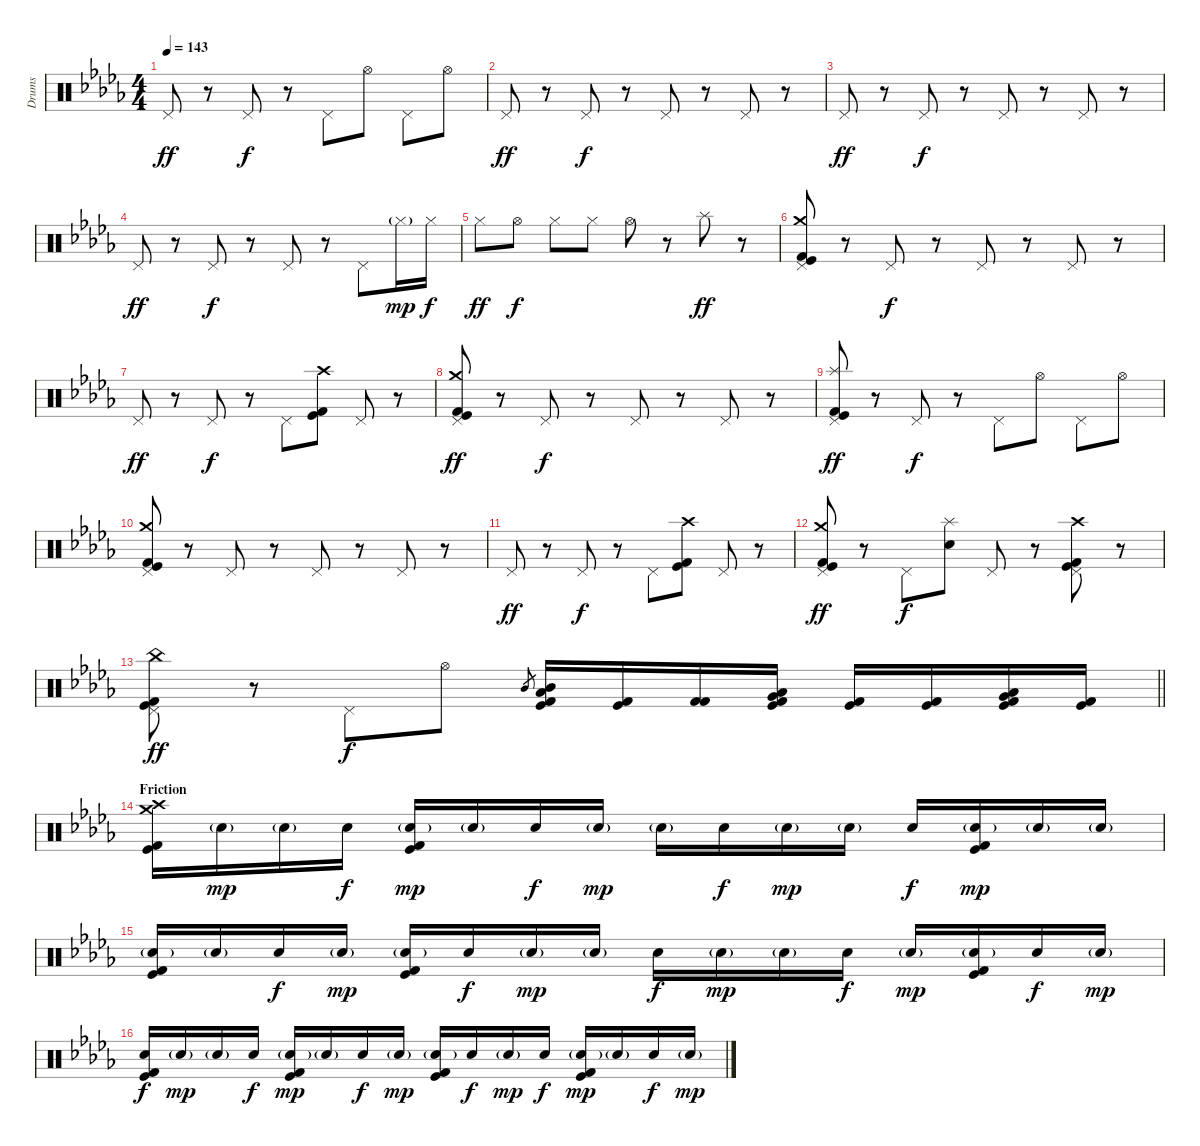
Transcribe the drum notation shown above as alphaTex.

\track ("Drums" "Drums") {instrument percussion}
\staff {score}
\articulation defaults
\ts (4 4)
\tempo 143
\clef neutral
\ks db "Pedal Hi-Hat (hit)".8{dy ff}
r.8 "Pedal Hi-Hat (hit)".8{dy f} r.8 "Pedal Hi-Hat (hit)".8 "Hi-Hat (open)".8 "Pedal Hi-Hat (hit)".8 "Hi-Hat (open)".8 |
"Pedal Hi-Hat (hit)".8{dy ff} r.8 "Pedal Hi-Hat (hit)".8{dy f} r.8 "Pedal Hi-Hat (hit)".8 r.8 "Pedal Hi-Hat (hit)".8 r.8 |
"Pedal Hi-Hat (hit)".8{dy ff} r.8 "Pedal Hi-Hat (hit)".8{dy f} r.8 "Pedal Hi-Hat (hit)".8 r.8 "Pedal Hi-Hat (hit)".8 r.8 |
"Pedal Hi-Hat (hit)".8{dy ff} r.8 "Pedal Hi-Hat (hit)".8{dy f} r.8 "Pedal Hi-Hat (hit)".8 r.8 "Pedal Hi-Hat (hit)".8 "Hi-Hat (closed)"{g}.16{dy mp} "Hi-Hat (closed)".16{dy f} |
"Hi-Hat (closed)".8{dy ff} "Hi-Hat (open)".8{dy f} "Hi-Hat (closed)".8 "Hi-Hat (closed)".8 "Hi-Hat (open)".8 r.8 "Splash (hit)".8{dy ff} r.8 |
("Crash medium (hit)" "Pedal Hi-Hat (hit)" "Kick (hit)" "Kick (hit) 2").8 r.8 "Pedal Hi-Hat (hit)".8{dy f} r.8 "Pedal Hi-Hat (hit)".8 r.8 "Pedal Hi-Hat (hit)".8 r.8 |
"Pedal Hi-Hat (hit)".8{dy ff} r.8 "Pedal Hi-Hat (hit)".8{dy f} r.8 "Pedal Hi-Hat (hit)".8 ("Crash high (hit)" "Kick (hit)" "Kick (hit) 2").8 "Pedal Hi-Hat (hit)".8 r.8 |
("Crash medium (hit)" "Pedal Hi-Hat (hit)" "Kick (hit)" "Kick (hit) 2").8{dy ff} r.8 "Pedal Hi-Hat (hit)".8{dy f} r.8 "Pedal Hi-Hat (hit)".8 r.8 "Pedal Hi-Hat (hit)".8 r.8 |
("Splash (hit)" "Pedal Hi-Hat (hit)" "Kick (hit)" "Kick (hit) 2").8{dy ff} r.8 "Pedal Hi-Hat (hit)".8{dy f} r.8 "Pedal Hi-Hat (hit)".8 "Hi-Hat (open)".8 "Pedal Hi-Hat (hit)".8 "Hi-Hat (open)".8 |
("Crash medium (hit)" "Pedal Hi-Hat (hit)" "Kick (hit)" "Kick (hit) 2").8 r.8 "Pedal Hi-Hat (hit)".8 r.8 "Pedal Hi-Hat (hit)".8 r.8 "Pedal Hi-Hat (hit)".8 r.8 |
"Pedal Hi-Hat (hit)".8{dy ff} r.8 "Pedal Hi-Hat (hit)".8{dy f} r.8 "Pedal Hi-Hat (hit)".8 ("Crash high (hit)" "Kick (hit)" "Kick (hit) 2").8 "Pedal Hi-Hat (hit)".8 r.8 |
("Crash medium (hit)" "Pedal Hi-Hat (hit)" "Kick (hit)" "Kick (hit) 2").8{dy ff} r.8 "Pedal Hi-Hat (hit)".8{dy f} ("Splash (hit)" "Electric Snare (hit)").8 "Pedal Hi-Hat (hit)".8 r.8 ("Crash high (hit)" "Pedal Hi-Hat (hit)" "Kick (hit)" "Kick (hit) 2").8 r.8 |
\barLineRight lightlight
("China (hit)" "Pedal Hi-Hat (hit)" "Kick (hit)" "Kick (hit) 2").8{dy ff} r.8 "Pedal Hi-Hat (hit)".8{dy f} "Hi-Hat (open)".8 "Mid Tom (hit)".8{gr} ("Mid Tom (hit)" "Low Tom (hit)" "Kick (hit)" "Kick (hit) 2").16 ("Kick (hit)" "Kick (hit) 2").16 ("Kick (hit) 2" "Kick (hit) 2").16 ("Low Tom (hit)" "Very Low Tom (hit)" "Kick (hit)" "Kick (hit) 2").16 ("Kick (hit)" "Kick (hit) 2").16 ("Kick (hit)" "Kick (hit) 2").16 ("Low Floor Tom (hit)" "Very Low Tom (hit)" "Kick (hit)" "Kick (hit) 2").16 ("Kick (hit)" "Kick (hit) 2").16 |
\section ("" "Friction")
("Crash medium (hit)" "Crash high (hit)" "Kick (hit)" "Kick (hit) 2").16 "Electric Snare (hit)"{g}.16{dy mp} "Electric Snare (hit)"{g}.16 "Electric Snare (hit)".16{dy f} ("Electric Snare (hit)"{g} "Kick (hit) 2" "Kick (hit)").16{dy mp} "Electric Snare (hit)"{g}.16 "Electric Snare (hit)".16{dy f} "Electric Snare (hit)"{g}.16{dy mp} "Electric Snare (hit)"{g}.16 "Electric Snare (hit)".16{dy f} "Electric Snare (hit)"{g}.16{dy mp} "Electric Snare (hit)"{g}.16 "Electric Snare (hit)".16{dy f} ("Electric Snare (hit)"{g} "Kick (hit)" "Kick (hit) 2").16{dy mp} "Electric Snare (hit)"{g}.16 "Electric Snare (hit)"{g}.16 |
("Electric Snare (hit)"{g} "Kick (hit)" "Kick (hit) 2").16 "Electric Snare (hit)"{g}.16 "Electric Snare (hit)".16{dy f} "Electric Snare (hit)"{g}.16{dy mp} ("Electric Snare (hit)"{g} "Kick (hit)" "Kick (hit) 2").16 "Electric Snare (hit)".16{dy f} "Electric Snare (hit)"{g}.16{dy mp} "Electric Snare (hit)"{g}.16 "Electric Snare (hit)".16{dy f} "Electric Snare (hit)"{g}.16{dy mp} "Electric Snare (hit)"{g}.16 "Electric Snare (hit)".16{dy f} "Electric Snare (hit)"{g}.16{dy mp} ("Electric Snare (hit)"{g} "Kick (hit)" "Kick (hit) 2").16 "Electric Snare (hit)".16{dy f} "Electric Snare (hit)"{g}.16{dy mp} |
("Electric Snare (hit)" "Kick (hit)" "Kick (hit) 2").16{dy f} "Electric Snare (hit)"{g}.16{dy mp} "Electric Snare (hit)"{g}.16 "Electric Snare (hit)".16{dy f} ("Electric Snare (hit)"{g} "Kick (hit)" "Kick (hit) 2").16{dy mp} "Electric Snare (hit)"{g}.16 "Electric Snare (hit)".16{dy f} "Electric Snare (hit)"{g}.16{dy mp} ("Electric Snare (hit)"{g} "Kick (hit)" "Kick (hit) 2").16 "Electric Snare (hit)".16{dy f} "Electric Snare (hit)"{g}.16{dy mp} "Electric Snare (hit)".16{dy f} ("Electric Snare (hit)"{g} "Kick (hit)" "Kick (hit) 2").16{dy mp} "Electric Snare (hit)"{g}.16 "Electric Snare (hit)".16{dy f} "Electric Snare (hit)"{g}.16{dy mp}
